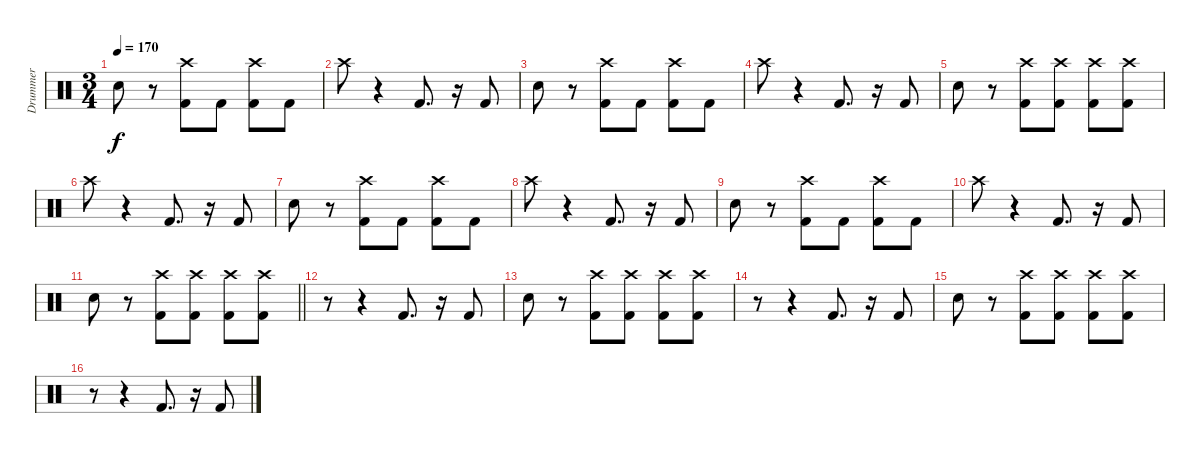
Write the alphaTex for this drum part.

\track ("Drummer" "Drummer") {instrument percussion}
\staff {score}
\articulation defaults
\ts (3 4)
\tempo 170
\clef neutral
\ks c "Electric Snare (hit)".8{dy f}
r.8 ("Crash high (hit)" "Kick (hit) 2").8 "Kick (hit) 2".8 ("Crash high (hit)" "Kick (hit) 2").8 "Kick (hit) 2".8 |
"Crash high (hit)".8 r.4 "Kick (hit) 2".8{d} r.16 "Kick (hit) 2".8 |
"Electric Snare (hit)".8 r.8 ("Crash high (hit)" "Kick (hit) 2").8 "Kick (hit) 2".8 ("Crash high (hit)" "Kick (hit) 2").8 "Kick (hit) 2".8 |
"Crash high (hit)".8 r.4 "Kick (hit) 2".8{d} r.16 "Kick (hit) 2".8 |
"Electric Snare (hit)".8 r.8 ("Crash high (hit)" "Kick (hit) 2").8 ("Crash high (hit)" "Kick (hit) 2").8 ("Crash high (hit)" "Kick (hit) 2").8 ("Crash high (hit)" "Kick (hit) 2").8 |
"Crash high (hit)".8 r.4 "Kick (hit) 2".8{d} r.16 "Kick (hit) 2".8 |
"Electric Snare (hit)".8 r.8 ("Crash high (hit)" "Kick (hit) 2").8 "Kick (hit) 2".8 ("Crash high (hit)" "Kick (hit) 2").8 "Kick (hit) 2".8 |
"Crash high (hit)".8 r.4 "Kick (hit) 2".8{d} r.16 "Kick (hit) 2".8 |
"Electric Snare (hit)".8 r.8 ("Crash high (hit)" "Kick (hit) 2").8 "Kick (hit) 2".8 ("Crash high (hit)" "Kick (hit) 2").8 "Kick (hit) 2".8 |
"Crash high (hit)".8 r.4 "Kick (hit) 2".8{d} r.16 "Kick (hit) 2".8 |
\barLineRight lightlight "Electric Snare (hit)".8
r.8 ("Crash high (hit)" "Kick (hit) 2").8 ("Crash high (hit)" "Kick (hit) 2").8 ("Crash high (hit)" "Kick (hit) 2").8 ("Crash high (hit)" "Kick (hit) 2").8 |
r.8 r.4 "Kick (hit) 2".8{d} r.16 "Kick (hit) 2".8 |
"Electric Snare (hit)".8 r.8 ("Crash high (hit)" "Kick (hit) 2").8 ("Crash high (hit)" "Kick (hit) 2").8 ("Crash high (hit)" "Kick (hit) 2").8 ("Crash high (hit)" "Kick (hit) 2").8 |
r.8 r.4 "Kick (hit) 2".8{d} r.16 "Kick (hit) 2".8 |
"Electric Snare (hit)".8 r.8 ("Crash high (hit)" "Kick (hit) 2").8 ("Crash high (hit)" "Kick (hit) 2").8 ("Crash high (hit)" "Kick (hit) 2").8 ("Crash high (hit)" "Kick (hit) 2").8 |
r.8 r.4 "Kick (hit) 2".8{d} r.16 "Kick (hit) 2".8
